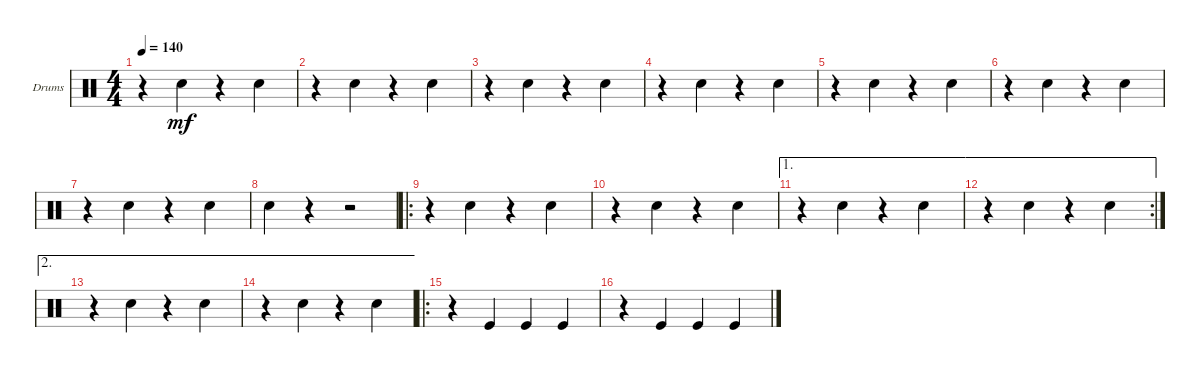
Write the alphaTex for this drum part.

\defaultSystemsLayout 4
\bracketExtendMode groupsimilarinstruments
\firstSystemTrackNameOrientation horizontal
\otherSystemsTrackNameOrientation horizontal
\track ("Drumkit" "Drums") {instrument percussion}
\staff {score}
\articulation defaults
\ts (4 4)
\tempo 140
\clef neutral
\scale
0.641509
\ks c
r.4{dy mf} "Snare (hit) 2".4 r.4 "Snare (hit) 2".4 |
\scale
0.358491 r.4 "Snare (hit) 2".4 r.4 "Snare (hit) 2".4 |
\scale
0.5 r.4 "Snare (hit) 2".4 r.4 "Snare (hit) 2".4 |
\scale
0.5 r.4 "Snare (hit) 2".4 r.4 "Snare (hit) 2".4 |
\scale
0.5 r.4 "Snare (hit) 2".4 r.4 "Snare (hit) 2".4 |
\scale
0.5 r.4 "Snare (hit) 2".4 r.4 "Snare (hit) 2".4 |
\scale
0.5 r.4 "Snare (hit) 2".4 r.4 "Snare (hit) 2".4 |
\scale
0.5 "Snare (hit) 2".4 r.4 r.2 |
\ro
\scale
0.547619 r.4 "Snare (hit) 2".4 r.4 "Snare (hit) 2".4 |
\scale
0.452381 r.4 "Snare (hit) 2".4 r.4 "Snare (hit) 2".4 |
\ae 1
\scale
0.475 r.4 "Snare (hit) 2".4 r.4 "Snare (hit) 2".4 |
\ae 1
\rc 2
\scale
0.525 r.4 "Snare (hit) 2".4 r.4 "Snare (hit) 2".4 |
\ae 2
\scale
0.5 r.4 "Snare (hit) 2".4 r.4 "Snare (hit) 2".4 |
\ae 2
\scale
0.5 r.4 "Snare (hit) 2".4 r.4 "Snare (hit) 2".4 |
\ro
\scale
0.547619 r.4 "Kick (hit)".4 "Kick (hit)".4 "Kick (hit)".4 |
\scale
0.452381 r.4 "Kick (hit)".4 "Kick (hit)".4 "Kick (hit)".4
